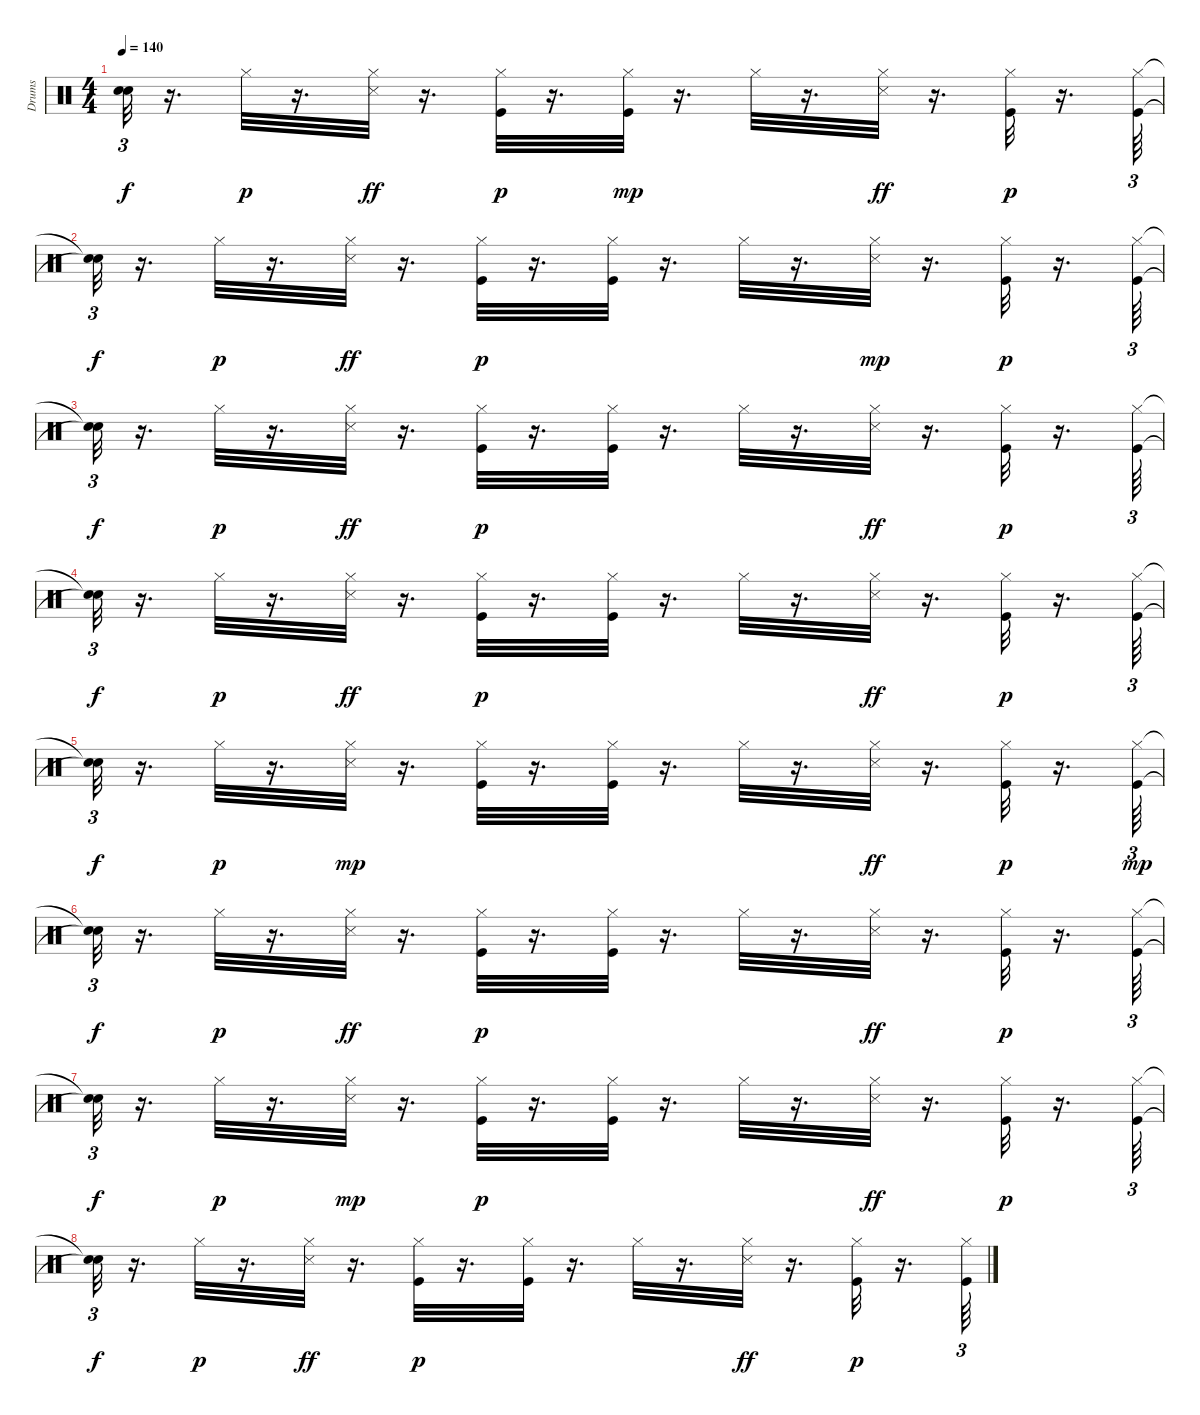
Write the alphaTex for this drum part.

\track ("Drums" "Drums") {instrument percussion}
\staff {score}
\articulation defaults
\ts (4 4)
\tempo 140
\clef neutral
\ks c
("Snare (hit)"{t} "Snare (hit)"{t}).32{tu (3 2) dy f} r.16{d} "Hi-Hat (closed)".32{dy p} r.16{d} ("Hi-Hat (closed)" "Snare (side stick) 3").32{dy ff} r.16{d} ("Hi-Hat (closed)" "Kick (hit)").32{dy p} r.16{d} ("Hi-Hat (closed)" "Kick (hit)").32{dy mp} r.16{d} "Hi-Hat (closed)".32 r.16{d} ("Hi-Hat (closed)" "Snare (side stick) 3").32{dy ff} r.16{d} ("Kick (hit)" "Hi-Hat (closed)").32{dy p} r.16{d} ("Hi-Hat (closed)" "Kick (hit)").64{tu (3 2)} |
("Snare (hit)"{t} "Snare (hit)"{t}).32{tu (3 2) dy f} r.16{d} "Hi-Hat (closed)".32{dy p} r.16{d} ("Hi-Hat (closed)" "Snare (side stick) 3").32{dy ff} r.16{d} ("Hi-Hat (closed)" "Kick (hit)").32{dy p} r.16{d} ("Hi-Hat (closed)" "Kick (hit)").32 r.16{d} "Hi-Hat (closed)".32 r.16{d} ("Snare (side stick) 3" "Hi-Hat (closed)").32{dy mp} r.16{d} ("Hi-Hat (closed)" "Kick (hit)").32{dy p} r.16{d} ("Hi-Hat (closed)" "Kick (hit)").64{tu (3 2)} |
("Snare (hit)"{t} "Snare (hit)"{t}).32{tu (3 2) dy f} r.16{d} "Hi-Hat (closed)".32{dy p} r.16{d} ("Hi-Hat (closed)" "Snare (side stick) 3").32{dy ff} r.16{d} ("Hi-Hat (closed)" "Kick (hit)").32{dy p} r.16{d} ("Hi-Hat (closed)" "Kick (hit)").32 r.16{d} "Hi-Hat (closed)".32 r.16{d} ("Hi-Hat (closed)" "Snare (side stick) 3").32{dy ff} r.16{d} ("Hi-Hat (closed)" "Kick (hit)").32{dy p} r.16{d} ("Hi-Hat (closed)" "Kick (hit)").64{tu (3 2)} |
("Snare (hit)"{t} "Snare (hit)"{t}).32{tu (3 2) dy f} r.16{d} "Hi-Hat (closed)".32{dy p} r.16{d} ("Hi-Hat (closed)" "Snare (side stick) 3").32{dy ff} r.16{d} ("Hi-Hat (closed)" "Kick (hit)").32{dy p} r.16{d} ("Hi-Hat (closed)" "Kick (hit)").32 r.16{d} "Hi-Hat (closed)".32 r.16{d} ("Hi-Hat (closed)" "Snare (side stick) 3").32{dy ff} r.16{d} ("Hi-Hat (closed)" "Kick (hit)").32{dy p} r.16{d} ("Hi-Hat (closed)" "Kick (hit)").64{tu (3 2)} |
("Snare (hit)"{t} "Snare (hit)"{t}).32{tu (3 2) dy f} r.16{d} "Hi-Hat (closed)".32{dy p} r.16{d} ("Snare (side stick) 3" "Hi-Hat (closed)").32{dy mp} r.16{d} ("Kick (hit)" "Hi-Hat (closed)").32 r.16{d} ("Hi-Hat (closed)" "Kick (hit)").32 r.16{d} "Hi-Hat (closed)".32 r.16{d} ("Hi-Hat (closed)" "Snare (side stick) 3").32{dy ff} r.16{d} ("Hi-Hat (closed)" "Kick (hit)").32{dy p} r.16{d} ("Hi-Hat (closed)" "Kick (hit)").64{tu (3 2) dy mp} |
("Snare (hit)"{t} "Snare (hit)"{t}).32{tu (3 2) dy f} r.16{d} "Hi-Hat (closed)".32{dy p} r.16{d} ("Hi-Hat (closed)" "Snare (side stick) 3").32{dy ff} r.16{d} ("Kick (hit)" "Hi-Hat (closed)").32{dy p} r.16{d} ("Kick (hit)" "Hi-Hat (closed)").32 r.16{d} "Hi-Hat (closed)".32 r.16{d} ("Hi-Hat (closed)" "Snare (side stick) 3").32{dy ff} r.16{d} ("Hi-Hat (closed)" "Kick (hit)").32{dy p} r.16{d} ("Hi-Hat (closed)" "Kick (hit)").64{tu (3 2)} |
("Snare (hit)"{t} "Snare (hit)"{t}).32{tu (3 2) dy f} r.16{d} "Hi-Hat (closed)".32{dy p} r.16{d} ("Snare (side stick) 3" "Hi-Hat (closed)").32{dy mp} r.16{d} ("Kick (hit)" "Hi-Hat (closed)").32{dy p} r.16{d} ("Kick (hit)" "Hi-Hat (closed)").32 r.16{d} "Hi-Hat (closed)".32 r.16{d} ("Hi-Hat (closed)" "Snare (side stick) 3").32{dy ff} r.16{d} ("Hi-Hat (closed)" "Kick (hit)").32{dy p} r.16{d} ("Hi-Hat (closed)" "Kick (hit)").64{tu (3 2)} |
("Snare (hit)"{t} "Snare (hit)"{t}).32{tu (3 2) dy f} r.16{d} "Hi-Hat (closed)".32{dy p} r.16{d} ("Hi-Hat (closed)" "Snare (side stick) 3").32{dy ff} r.16{d} ("Kick (hit)" "Hi-Hat (closed)").32{dy p} r.16{d} ("Hi-Hat (closed)" "Kick (hit)").32 r.16{d} "Hi-Hat (closed)".32 r.16{d} ("Hi-Hat (closed)" "Snare (side stick) 3").32{dy ff} r.16{d} ("Hi-Hat (closed)" "Kick (hit)").32{dy p} r.16{d} ("Hi-Hat (closed)" "Kick (hit)").64{tu (3 2)}
